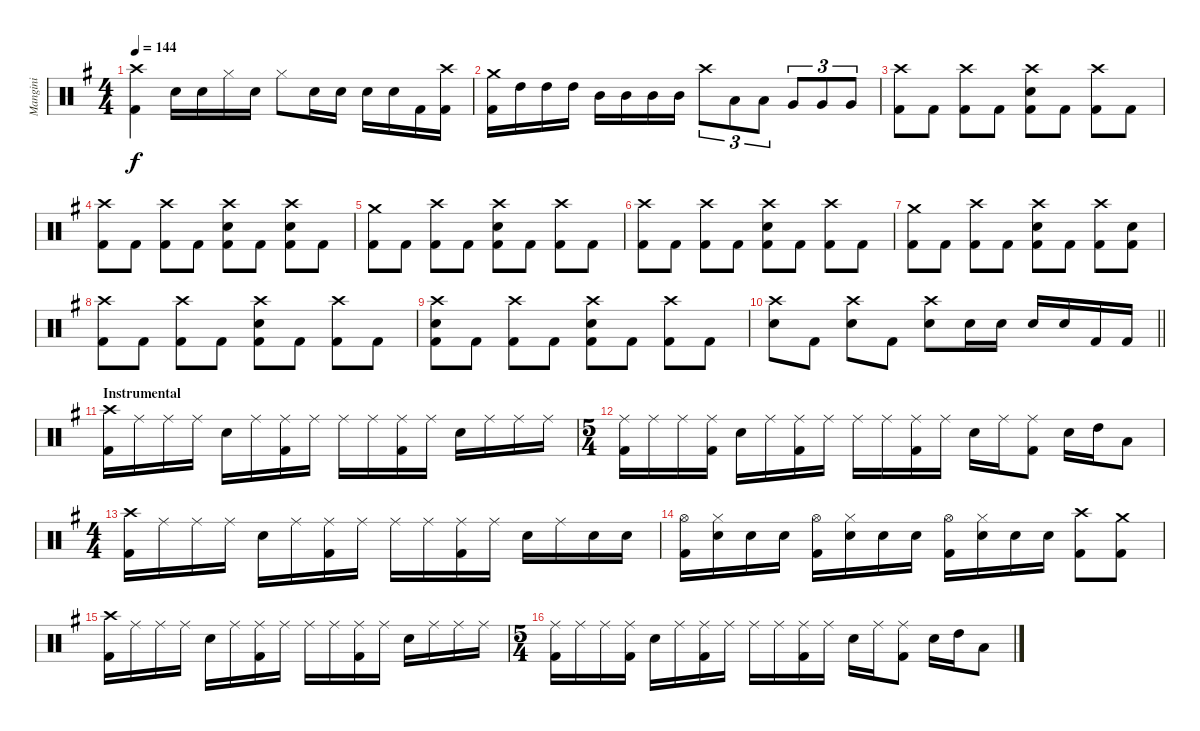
\track ("Mangini" "Mangini") {instrument percussion}
\staff {score}
\articulation defaults
\ts (4 4)
\tempo 144
\clef neutral
\ks eminor
("Crash high (hit)" "Kick (hit) 2").4{dy f} "Snare (hit) 2".16 "Snare (hit) 2".16 "Hi-Hat (closed)".16 "Snare (hit) 2".16 "Hi-Hat (closed)".8 "Snare (hit) 2".16 "Snare (hit) 2".16 "Snare (hit) 2".16 "Snare (hit) 2".16 "Kick (hit) 2".16 ("Crash high (hit)" "Kick (hit) 2").16 |
("Crash medium (hit)" "Kick (hit) 2").16 "High Tom (hit)".16 "High Tom (hit)".16 "High Tom (hit)".16 "Mid Tom (hit)".16 "Mid Tom (hit)".16 "Mid Tom (hit)".16 "Mid Tom (hit)".16 "Crash high (hit)".8{tu (3 2)} "Low Tom (hit)".8{tu (3 2)} "Low Tom (hit)".8{tu (3 2)} "Very Low Tom (hit)".8{tu (3 2)} "Very Low Tom (hit)".8{tu (3 2)} "Very Low Tom (hit)".8{tu (3 2)} |
("Crash high (hit)" "Kick (hit) 2").8 "Kick (hit) 2".8 ("Crash high (hit)" "Kick (hit) 2").8 "Kick (hit) 2".8 ("Crash high (hit)" "Snare (hit) 2" "Kick (hit) 2").8 "Kick (hit) 2".8 ("Crash high (hit)" "Kick (hit) 2").8 "Kick (hit) 2".8 |
("Crash high (hit)" "Kick (hit) 2").8 "Kick (hit) 2".8 ("Crash high (hit)" "Kick (hit) 2").8 "Kick (hit) 2".8 ("Crash high (hit)" "Snare (hit) 2" "Kick (hit) 2").8 "Kick (hit) 2".8 ("Crash high (hit)" "Snare (hit) 2" "Kick (hit) 2").8 "Kick (hit) 2".8 |
("Crash medium (hit)" "Kick (hit) 2").8 "Kick (hit) 2".8 ("Crash high (hit)" "Kick (hit) 2").8 "Kick (hit) 2".8 ("Crash high (hit)" "Snare (hit) 2" "Kick (hit) 2").8 "Kick (hit) 2".8 ("Crash high (hit)" "Kick (hit) 2").8 "Kick (hit) 2".8 |
("Crash high (hit)" "Kick (hit) 2").8 "Kick (hit) 2".8 ("Crash high (hit)" "Kick (hit) 2").8 "Kick (hit) 2".8 ("Crash high (hit)" "Snare (hit) 2" "Kick (hit) 2").8 "Kick (hit) 2".8 ("Crash high (hit)" "Kick (hit) 2").8 "Kick (hit) 2".8 |
("Crash medium (hit)" "Kick (hit) 2").8 "Kick (hit) 2".8 ("Crash high (hit)" "Kick (hit) 2").8 "Kick (hit) 2".8 ("Crash high (hit)" "Snare (hit) 2" "Kick (hit) 2").8 "Kick (hit) 2".8 ("Crash high (hit)" "Kick (hit) 2").8 ("Snare (hit) 2" "Kick (hit) 2").8 |
("Crash high (hit)" "Kick (hit) 2").8 "Kick (hit) 2".8 ("Crash high (hit)" "Kick (hit) 2").8 "Kick (hit) 2".8 ("Crash high (hit)" "Snare (hit) 2" "Kick (hit) 2").8 "Kick (hit) 2".8 ("Crash high (hit)" "Kick (hit) 2").8 "Kick (hit) 2".8 |
("Crash high (hit)" "Snare (hit) 2" "Kick (hit) 2").8 "Kick (hit) 2".8 ("Crash high (hit)" "Kick (hit) 2").8 "Kick (hit) 2".8 ("Crash high (hit)" "Snare (hit) 2" "Kick (hit) 2").8 "Kick (hit) 2".8 ("Crash high (hit)" "Kick (hit) 2").8 "Kick (hit) 2".8 |
\barLineRight lightlight
("Crash high (hit)" "Snare (hit) 2").8 "Kick (hit) 2".8 ("Crash high (hit)" "Snare (hit) 2").8 "Kick (hit) 2".8 ("Crash high (hit)" "Snare (hit) 2").8 "Snare (hit) 2".16 "Snare (hit) 2".16 "Snare (hit) 2".16 "Snare (hit) 2".16 "Kick (hit) 2".16 "Kick (hit) 2".16 |
\section ("" "Instrumental")
("Crash high (hit)" "Kick (hit) 2").16 "Ride (middle)".16 "Ride (middle)".16 "Ride (middle)".16 "Snare (hit) 2".16 "Ride (middle)".16 ("Ride (middle)" "Kick (hit) 2").16 "Ride (middle)".16 "Ride (middle)".16 "Ride (middle)".16 ("Ride (middle)" "Kick (hit) 2").16 "Ride (middle)".16 "Snare (hit) 2".16 "Ride (middle)".16 "Ride (middle)".16 "Ride (middle)".16 |
\ts (5 4)
("Ride (middle)" "Kick (hit) 2").16 "Ride (middle)".16 "Ride (middle)".16 ("Ride (middle)" "Kick (hit) 2").16 "Snare (hit) 2".16 "Ride (middle)".16 ("Ride (middle)" "Kick (hit) 2").16 "Ride (middle)".16 "Ride (middle)".16 "Ride (middle)".16 ("Ride (middle)" "Kick (hit) 2").16 "Ride (middle)".16 "Snare (hit) 2".16 "Ride (middle)".16 ("Ride (middle)" "Kick (hit) 2").8 "Snare (hit) 2".16 "High Tom (hit)".16 "Low Tom (hit)".8 |
\ts (4 4)
("Crash high (hit)" "Kick (hit) 2").16 "Ride (middle)".16 "Ride (middle)".16 "Ride (middle)".16 "Snare (hit) 2".16 "Ride (middle)".16 ("Ride (middle)" "Kick (hit) 2").16 "Ride (middle)".16 "Ride (middle)".16 "Ride (middle)".16 ("Ride (middle)" "Kick (hit) 2").16 "Ride (middle)".16 "Snare (hit) 2".16 "Ride (middle)".16 "Snare (hit) 2".16 "Snare (hit) 2".16 |
("Hi-Hat (open)" "Kick (hit) 2").16 ("Hi-Hat (closed)" "Snare (hit) 2").16 "Snare (hit) 2".16 "Snare (hit) 2".16 ("Hi-Hat (open)" "Kick (hit) 2").16 ("Hi-Hat (closed)" "Snare (hit) 2").16 "Snare (hit) 2".16 "Snare (hit) 2".16 ("Hi-Hat (open)" "Kick (hit) 2").16 ("Hi-Hat (closed)" "Snare (hit) 2").16 "Snare (hit) 2".16 "Snare (hit) 2".16 ("Crash high (hit)" "Kick (hit) 2").8 ("Crash medium (hit)" "Kick (hit) 2").8 |
("Crash high (hit)" "Kick (hit) 2").16 "Ride (middle)".16 "Ride (middle)".16 "Ride (middle)".16 "Snare (hit) 2".16 "Ride (middle)".16 ("Ride (middle)" "Kick (hit) 2").16 "Ride (middle)".16 "Ride (middle)".16 "Ride (middle)".16 ("Ride (middle)" "Kick (hit) 2").16 "Ride (middle)".16 "Snare (hit) 2".16 "Ride (middle)".16 "Ride (middle)".16 "Ride (middle)".16 |
\ts (5 4)
("Ride (middle)" "Kick (hit) 2").16 "Ride (middle)".16 "Ride (middle)".16 ("Ride (middle)" "Kick (hit) 2").16 "Snare (hit) 2".16 "Ride (middle)".16 ("Ride (middle)" "Kick (hit) 2").16 "Ride (middle)".16 "Ride (middle)".16 "Ride (middle)".16 ("Ride (middle)" "Kick (hit) 2").16 "Ride (middle)".16 "Snare (hit) 2".16 "Ride (middle)".16 ("Ride (middle)" "Kick (hit) 2").8 "Snare (hit) 2".16 "High Tom (hit)".16 "Low Tom (hit)".8
